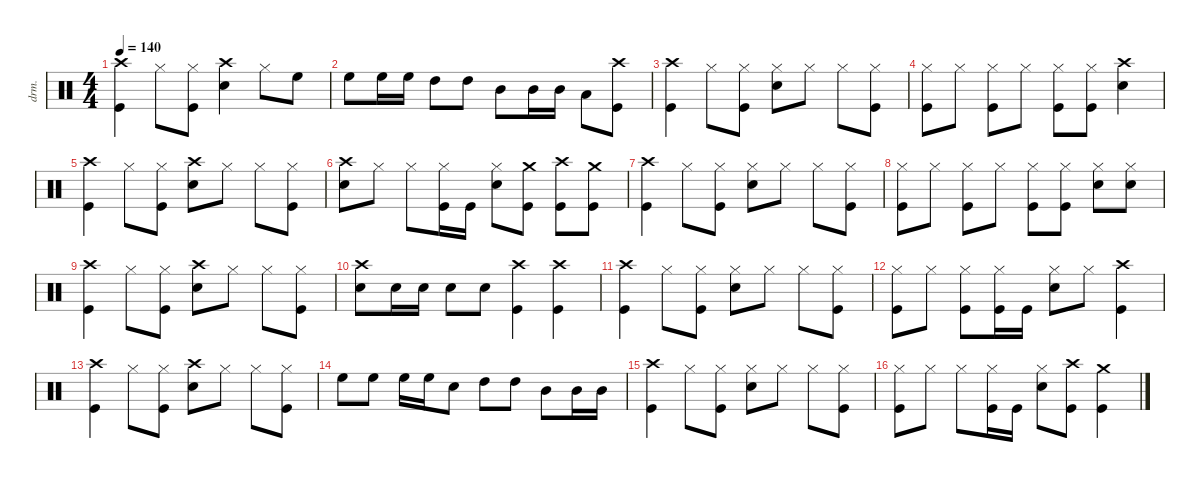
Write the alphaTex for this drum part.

\defaultSystemsLayout 4
\hideDynamics
\bracketExtendMode nobrackets
\otherSystemsTrackNameOrientation horizontal
\track ("Drums" "drm.") {multiBarRest instrument percussion}
\staff
\articulation defaults
\ts (4 4)
\tempo 140
\clef neutral
\ks c
("Crash high (hit)" "Kick (hit)").4{dy f} "Hi-Hat (closed)".8 ("Hi-Hat (closed)" "Kick (hit)").8 ("Snare (hit) 2" "Crash high (hit)").4 "Hi-Hat (closed)".8 "High Floor Tom (hit)".8{dy ff} |
"High Floor Tom (hit)".8 "High Floor Tom (hit)".16 "High Floor Tom (hit)".16 "High Tom (hit)".8 "High Tom (hit)".8 "Mid Tom (hit)".8 "Mid Tom (hit)".16 "Mid Tom (hit)".16 "Low Tom (hit)".8 ("Kick (hit)" "Crash high (hit)").8{dy f} |
("Crash high (hit)" "Kick (hit)").4 "Hi-Hat (closed)".8 ("Hi-Hat (closed)" "Kick (hit)").8 ("Snare (hit) 2" "Hi-Hat (closed)").8 "Hi-Hat (closed)".8 "Hi-Hat (closed)".8 ("Hi-Hat (closed)" "Kick (hit)").8 |
("Hi-Hat (closed)" "Kick (hit)").8 "Hi-Hat (closed)".8 ("Hi-Hat (closed)" "Kick (hit)").8 "Hi-Hat (closed)".8 ("Hi-Hat (closed)" "Kick (hit)").8 ("Hi-Hat (closed)" "Kick (hit)").8 ("Snare (hit) 2" "Crash high (hit)").4 |
("Crash high (hit)" "Kick (hit)").4 "Hi-Hat (closed)".8 ("Hi-Hat (closed)" "Kick (hit)").8 ("Snare (hit) 2" "Crash high (hit)").8 "Hi-Hat (closed)".8 "Hi-Hat (closed)".8 ("Hi-Hat (closed)" "Kick (hit)").8 |
("Snare (hit) 2" "Crash high (hit)").8 "Hi-Hat (closed)".8 "Hi-Hat (closed)".8 ("Hi-Hat (closed)" "Kick (hit)").16 "Kick (hit)".16 ("Snare (hit) 2" "Hi-Hat (closed)").8 ("Kick (hit)" "Crash medium (hit)").8 ("Kick (hit)" "Crash high (hit)").8 ("Kick (hit)" "Crash medium (hit)").8 |
("Crash high (hit)" "Kick (hit)").4 "Hi-Hat (closed)".8 ("Hi-Hat (closed)" "Kick (hit)").8 ("Snare (hit) 2" "Hi-Hat (closed)").8 "Hi-Hat (closed)".8 "Hi-Hat (closed)".8 ("Hi-Hat (closed)" "Kick (hit)").8 |
("Hi-Hat (closed)" "Kick (hit)").8 "Hi-Hat (closed)".8 ("Hi-Hat (closed)" "Kick (hit)").8 "Hi-Hat (closed)".8 ("Hi-Hat (closed)" "Kick (hit)").8 ("Hi-Hat (closed)" "Kick (hit)").8 ("Snare (hit) 2" "Hi-Hat (closed)").8 ("Snare (hit) 2" "Hi-Hat (closed)").8 |
("Crash high (hit)" "Kick (hit)").4 "Hi-Hat (closed)".8 ("Hi-Hat (closed)" "Kick (hit)").8 ("Snare (hit) 2" "Crash high (hit)").8 "Hi-Hat (closed)".8 "Hi-Hat (closed)".8 ("Hi-Hat (closed)" "Kick (hit)").8 |
("Snare (hit) 2" "Crash high (hit)").8 "Snare (hit) 2".16{dy mf} "Snare (hit) 2".16 "Snare (hit) 2".8{dy f} "Snare (hit) 2".8 ("Kick (hit)" "Crash high (hit)").4 ("Kick (hit)" "Crash high (hit)").4 |
("Crash high (hit)" "Kick (hit)").4 "Hi-Hat (closed)".8 ("Hi-Hat (closed)" "Kick (hit)").8 ("Snare (hit) 2" "Hi-Hat (closed)").8 "Hi-Hat (closed)".8 "Hi-Hat (closed)".8 ("Hi-Hat (closed)" "Kick (hit)").8 |
("Kick (hit)" "Hi-Hat (closed)").8 "Hi-Hat (closed)".8 ("Hi-Hat (closed)" "Kick (hit)").8 ("Hi-Hat (closed)" "Kick (hit)").16 "Kick (hit)".16 ("Snare (hit) 2" "Hi-Hat (closed)").8 "Hi-Hat (closed)".8 ("Kick (hit)" "Crash high (hit)").4 |
("Crash high (hit)" "Kick (hit)").4 "Hi-Hat (closed)".8 ("Hi-Hat (closed)" "Kick (hit)").8 ("Snare (hit) 2" "Crash high (hit)").8 "Hi-Hat (closed)".8 "Hi-Hat (closed)".8 ("Hi-Hat (closed)" "Kick (hit)").8 |
"High Floor Tom (hit)".8{dy ff} "High Floor Tom (hit)".8 "High Floor Tom (hit)".16 "High Floor Tom (hit)".16 "Snare (hit) 2".8{dy f} "High Tom (hit)".8{dy ff} "High Tom (hit)".8 "Mid Tom (hit)".8 "Mid Tom (hit)".16 "Mid Tom (hit)".16 |
("Crash high (hit)" "Kick (hit)").4{dy f} "Hi-Hat (closed)".8 ("Hi-Hat (closed)" "Kick (hit)").8 ("Snare (hit) 2" "Hi-Hat (closed)").8 "Hi-Hat (closed)".8 "Hi-Hat (closed)".8 ("Hi-Hat (closed)" "Kick (hit)").8 |
("Kick (hit)" "Hi-Hat (closed)").8 "Hi-Hat (closed)".8 "Hi-Hat (closed)".8 ("Hi-Hat (closed)" "Kick (hit)").16 "Kick (hit)".16 ("Hi-Hat (closed)" "Snare (hit) 2").8 ("Kick (hit)" "Crash high (hit)").8 ("Kick (hit)" "Crash medium (hit)").4
